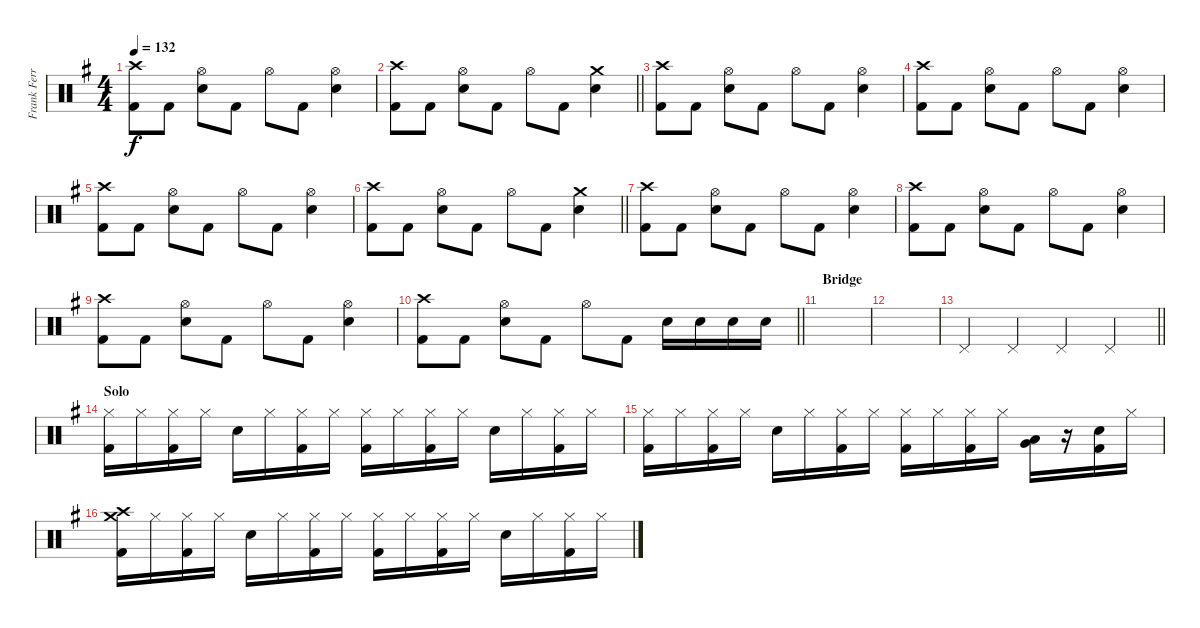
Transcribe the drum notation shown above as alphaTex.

\track ("Frank Ferrer" "Frank Ferr") {instrument percussion}
\staff {score}
\articulation defaults
\ts (4 4)
\tempo 132
\clef neutral
\ks g
("Crash high (hit)" "Kick (hit) 2").8{dy f} "Kick (hit) 2".8 ("Hi-Hat (open)" "Electric Snare (hit)").8 "Kick (hit) 2".8 "Hi-Hat (open)".8 "Kick (hit) 2".8 ("Hi-Hat (open)" "Electric Snare (hit)").4 |
\barLineRight lightlight
("Crash high (hit)" "Kick (hit) 2").8 "Kick (hit) 2".8 ("Hi-Hat (open)" "Electric Snare (hit)").8 "Kick (hit) 2".8 "Hi-Hat (open)".8 "Kick (hit) 2".8 ("Crash medium (hit)" "Electric Snare (hit)").4 |
("Crash high (hit)" "Kick (hit) 2").8 "Kick (hit) 2".8 ("Hi-Hat (open)" "Electric Snare (hit)").8 "Kick (hit) 2".8 "Hi-Hat (open)".8 "Kick (hit) 2".8 ("Hi-Hat (open)" "Electric Snare (hit)").4 |
("Crash high (hit)" "Kick (hit) 2").8 "Kick (hit) 2".8 ("Hi-Hat (open)" "Electric Snare (hit)").8 "Kick (hit) 2".8 "Hi-Hat (open)".8 "Kick (hit) 2".8 ("Hi-Hat (open)" "Electric Snare (hit)").4 |
("Crash high (hit)" "Kick (hit) 2").8 "Kick (hit) 2".8 ("Hi-Hat (open)" "Electric Snare (hit)").8 "Kick (hit) 2".8 "Hi-Hat (open)".8 "Kick (hit) 2".8 ("Hi-Hat (open)" "Electric Snare (hit)").4 |
\barLineRight lightlight
("Crash high (hit)" "Kick (hit) 2").8 "Kick (hit) 2".8 ("Hi-Hat (open)" "Electric Snare (hit)").8 "Kick (hit) 2".8 "Hi-Hat (open)".8 "Kick (hit) 2".8 ("Crash medium (hit)" "Electric Snare (hit)").4 |
("Crash high (hit)" "Kick (hit) 2").8 "Kick (hit) 2".8 ("Hi-Hat (open)" "Electric Snare (hit)").8 "Kick (hit) 2".8 "Hi-Hat (open)".8 "Kick (hit) 2".8 ("Hi-Hat (open)" "Electric Snare (hit)").4 |
("Crash high (hit)" "Kick (hit) 2").8 "Kick (hit) 2".8 ("Hi-Hat (open)" "Electric Snare (hit)").8 "Kick (hit) 2".8 "Hi-Hat (open)".8 "Kick (hit) 2".8 ("Hi-Hat (open)" "Electric Snare (hit)").4 |
("Crash high (hit)" "Kick (hit) 2").8 "Kick (hit) 2".8 ("Hi-Hat (open)" "Electric Snare (hit)").8 "Kick (hit) 2".8 "Hi-Hat (open)".8 "Kick (hit) 2".8 ("Hi-Hat (open)" "Electric Snare (hit)").4 |
\barLineRight lightlight
("Crash high (hit)" "Kick (hit) 2").8 "Kick (hit) 2".8 ("Hi-Hat (open)" "Electric Snare (hit)").8 "Kick (hit) 2".8 "Hi-Hat (open)".8 "Kick (hit) 2".8 "Electric Snare (hit)".16 "Electric Snare (hit)".16 "Electric Snare (hit)".16 "Electric Snare (hit)".16 |
\section ("" "Bridge")
|
|
\barLineRight lightlight "Pedal Hi-Hat (hit)".4 "Pedal Hi-Hat (hit)".4 "Pedal Hi-Hat (hit)".4 "Pedal Hi-Hat (hit)".4
|
\section ("" "Solo")
("Hi-Hat (closed)" "Kick (hit) 2").16 "Hi-Hat (closed)".16 ("Hi-Hat (closed)" "Kick (hit) 2").16 "Hi-Hat (closed)".16 "Snare (hit) 2".16 "Hi-Hat (closed)".16 ("Hi-Hat (closed)" "Kick (hit) 2").16 "Hi-Hat (closed)".16 ("Hi-Hat (closed)" "Kick (hit) 2").16 "Hi-Hat (closed)".16 ("Hi-Hat (closed)" "Kick (hit) 2").16 "Hi-Hat (closed)".16 "Snare (hit) 2".16 "Hi-Hat (closed)".16 ("Hi-Hat (closed)" "Kick (hit) 2").16 "Hi-Hat (closed)".16 |
("Hi-Hat (closed)" "Kick (hit) 2").16 "Hi-Hat (closed)".16 ("Hi-Hat (closed)" "Kick (hit) 2").16 "Hi-Hat (closed)".16 "Snare (hit) 2".16 "Hi-Hat (closed)".16 ("Hi-Hat (closed)" "Kick (hit) 2").16 "Hi-Hat (closed)".16 ("Hi-Hat (closed)" "Kick (hit) 2").16 "Hi-Hat (closed)".16 ("Hi-Hat (closed)" "Kick (hit) 2").16 "Hi-Hat (closed)".16 ("Low Tom (hit)" "Very Low Tom (hit)").16 r.16 ("Snare (hit) 2" "Kick (hit) 2").16 "Hi-Hat (closed)".16 |
("Crash high (hit)" "Crash medium (hit)" "Kick (hit) 2").16 "Hi-Hat (closed)".16 ("Hi-Hat (closed)" "Kick (hit) 2").16 "Hi-Hat (closed)".16 "Snare (hit) 2".16 "Hi-Hat (closed)".16 ("Hi-Hat (closed)" "Kick (hit) 2").16 "Hi-Hat (closed)".16 ("Hi-Hat (closed)" "Kick (hit) 2").16 "Hi-Hat (closed)".16 ("Hi-Hat (closed)" "Kick (hit) 2").16 "Hi-Hat (closed)".16 "Snare (hit) 2".16 "Hi-Hat (closed)".16 ("Hi-Hat (closed)" "Kick (hit) 2").16 "Hi-Hat (closed)".16
